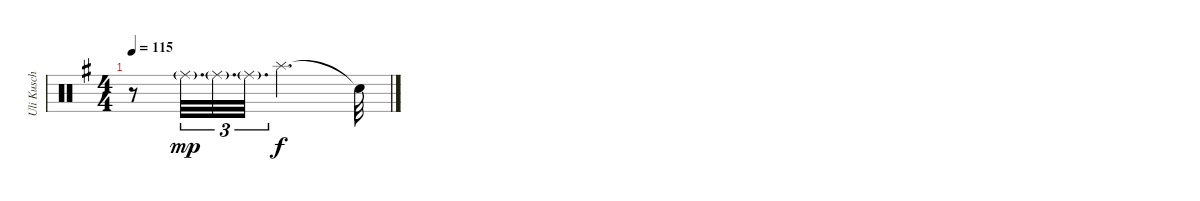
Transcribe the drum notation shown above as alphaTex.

\track ("Uli Kusch" "Uli Kusch") {instrument percussion}
\staff {score}
\articulation defaults
\ts (4 4)
\tempo 115
\clef neutral
\ks eminor
r.8{dy f} "Ride (middle)"{g}.32{d tu (3 2) dy mp} "Ride (middle)"{g}.32{d tu (3 2)} "Ride (middle)"{g}.32{d tu (3 2)} "Splash (hit)".2{d dy f} "Snare (hit)"{t}.32
